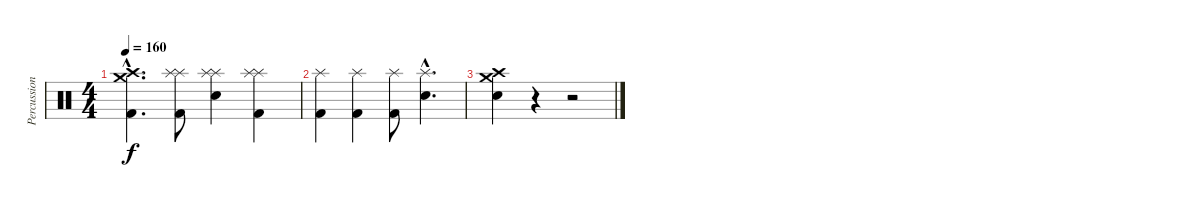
\track ("Percussion" "Percussion") {instrument percussion}
\staff {score}
\articulation defaults
\ts (4 4)
\tempo 160
\clef neutral
\ks c
("Crash high (hit)"{hac} "Crash medium (hit)"{hac} "Kick (hit) 2"{hac}).4{d dy f} ("Splash (hit)" "Splash (hit)" "Kick (hit) 2").8 ("Splash (hit)" "Splash (hit)" "Snare (hit) 2").4 ("Splash (hit)" "Splash (hit)" "Kick (hit) 2").4 |
("Splash (hit)" "Kick (hit) 2").4 ("Splash (hit)" "Kick (hit) 2").4 ("Splash (hit)" "Kick (hit) 2").8 ("Splash (hit)"{hac} "Snare (hit) 2"{hac}).4{d} |
("Crash high (hit)" "Crash medium (hit)" "Snare (hit) 2").4 r.4 r.2
